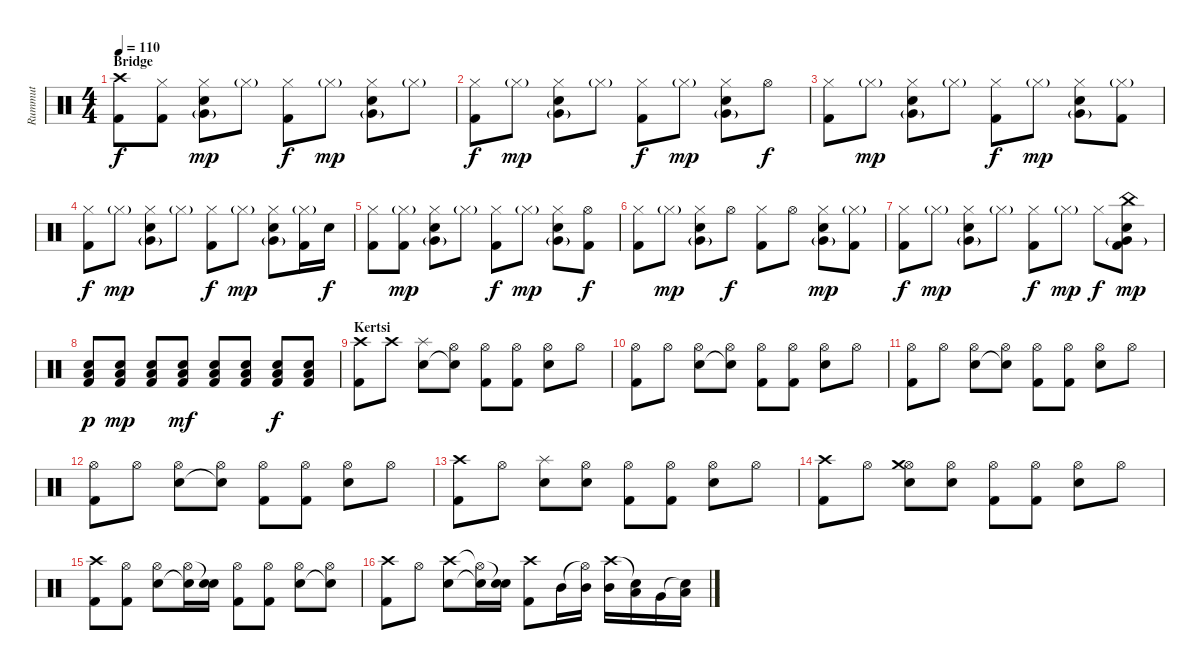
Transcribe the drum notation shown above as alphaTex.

\track ("Rummut" "Rummut") {instrument percussion}
\staff {score}
\articulation defaults
\ts (4 4)
\section ("" "Bridge")
\tempo 110
\clef neutral
\ks c
("Crash high (hit)" "Kick (hit) 2").8{dy f} ("Hi-Hat (closed)" "Kick (hit) 2").8 ("Hi-Hat (closed)" "Very Low Tom (hit)"{g} "Snare (hit) 2").8{dy mp} "Hi-Hat (closed)"{g}.8 ("Hi-Hat (closed)" "Kick (hit) 2").8{dy f} "Hi-Hat (closed)"{g}.8{dy mp} ("Hi-Hat (closed)" "Very Low Tom (hit)"{g} "Snare (hit) 2").8 "Hi-Hat (closed)"{g}.8 |
("Hi-Hat (closed)" "Kick (hit) 2").8{dy f} "Hi-Hat (closed)"{g}.8{dy mp} ("Hi-Hat (closed)" "Very Low Tom (hit)"{g} "Snare (hit) 2").8 "Hi-Hat (closed)"{g}.8 ("Hi-Hat (closed)" "Kick (hit) 2").8{dy f} "Hi-Hat (closed)"{g}.8{dy mp} ("Hi-Hat (closed)" "Very Low Tom (hit)"{g} "Snare (hit) 2").8 "Hi-Hat (open)".8{dy f} |
("Hi-Hat (closed)" "Kick (hit) 2").8 "Hi-Hat (closed)"{g}.8{dy mp} ("Hi-Hat (closed)" "Very Low Tom (hit)"{g} "Snare (hit) 2").8 "Hi-Hat (closed)"{g}.8 ("Hi-Hat (closed)" "Kick (hit) 2").8{dy f} "Hi-Hat (closed)"{g}.8{dy mp} ("Hi-Hat (closed)" "Very Low Tom (hit)"{g} "Snare (hit) 2").8 ("Hi-Hat (closed)"{g} "Kick (hit) 2").8 |
("Hi-Hat (closed)" "Kick (hit) 2").8{dy f} "Hi-Hat (closed)"{g}.8{dy mp} ("Hi-Hat (closed)" "Very Low Tom (hit)"{g} "Snare (hit) 2").8 "Hi-Hat (closed)"{g}.8 ("Hi-Hat (closed)" "Kick (hit) 2").8{dy f} "Hi-Hat (closed)"{g}.8{dy mp} ("Hi-Hat (closed)" "Very Low Tom (hit)"{g} "Snare (hit) 2").8 ("Hi-Hat (closed)"{g} "Kick (hit) 2").16 "Snare (hit) 2".16{dy f} |
("Hi-Hat (closed)" "Kick (hit) 2").8 ("Hi-Hat (closed)"{g} "Kick (hit) 2").8{dy mp} ("Hi-Hat (closed)" "Very Low Tom (hit)"{g} "Snare (hit) 2").8 "Hi-Hat (closed)"{g}.8 ("Hi-Hat (closed)" "Kick (hit) 2").8{dy f} "Hi-Hat (closed)"{g}.8{dy mp} ("Hi-Hat (closed)" "Very Low Tom (hit)"{g} "Snare (hit) 2").8 ("Hi-Hat (open)" "Kick (hit) 2").8{dy f} |
("Hi-Hat (closed)" "Kick (hit) 2").8 "Hi-Hat (closed)"{g}.8{dy mp} ("Hi-Hat (closed)" "Very Low Tom (hit)"{g} "Snare (hit) 2").8 "Hi-Hat (open)".8{dy f} ("Hi-Hat (closed)" "Kick (hit) 2").8 "Hi-Hat (open)".8 ("Hi-Hat (closed)" "Very Low Tom (hit)"{g} "Snare (hit) 2").8{dy mp} ("Hi-Hat (closed)"{g} "Kick (hit) 2").8 |
("Hi-Hat (closed)" "Kick (hit) 2").8{dy f} "Hi-Hat (closed)"{g}.8{dy mp} ("Hi-Hat (closed)" "Very Low Tom (hit)"{g} "Snare (hit) 2").8 "Hi-Hat (closed)"{g}.8 ("Hi-Hat (closed)" "Kick (hit) 2").8{dy f} "Hi-Hat (closed)"{g}.8{dy mp} "Hi-Hat (closed)".8{dy f} ("China (hit)" "Very Low Tom (hit)"{g} "Snare (hit) 2" "Kick (hit) 2").8{dy mp} |
("Snare (hit) 2" "Low Tom (hit)" "Kick (hit) 2").8{dy p} ("Snare (hit) 2" "Low Tom (hit)" "Kick (hit) 2").8{dy mp} ("Snare (hit) 2" "Low Tom (hit)" "Kick (hit) 2").8 ("Snare (hit) 2" "Low Tom (hit)" "Kick (hit) 2").8{dy mf} ("Snare (hit) 2" "Low Tom (hit)" "Kick (hit) 2").8 ("Snare (hit) 2" "Low Tom (hit)" "Kick (hit) 2").8 ("Snare (hit) 2" "Low Tom (hit)" "Kick (hit) 2").8{dy f} ("Snare (hit) 2" "Low Tom (hit)" "Kick (hit) 2").8 |
\section ("" "Kertsi")
("Crash high (hit)" "Kick (hit) 2").8 "Crash high (hit)".8 ("Splash (hit)" "Snare (hit) 2").8 ("Hi-Hat (open)" "Snare (hit)"{t}).8 ("Hi-Hat (open)" "Kick (hit) 2").8 ("Hi-Hat (open)" "Kick (hit) 2").8 ("Hi-Hat (open)" "Snare (hit) 2").8 "Hi-Hat (open)".8 |
("Hi-Hat (open)" "Kick (hit) 2").8 "Hi-Hat (open)".8 ("Hi-Hat (open)" "Snare (hit) 2").8 ("Hi-Hat (open)" "Snare (hit)"{t}).8 ("Hi-Hat (open)" "Kick (hit) 2").8 ("Hi-Hat (open)" "Kick (hit) 2").8 ("Hi-Hat (open)" "Snare (hit) 2").8 "Hi-Hat (open)".8 |
("Hi-Hat (open)" "Kick (hit) 2").8 "Hi-Hat (open)".8 ("Hi-Hat (open)" "Snare (hit) 2").8 ("Hi-Hat (open)" "Snare (hit)"{t}).8 ("Hi-Hat (open)" "Kick (hit) 2").8 ("Hi-Hat (open)" "Kick (hit) 2").8 ("Hi-Hat (open)" "Snare (hit) 2").8 "Hi-Hat (open)".8 |
("Hi-Hat (open)" "Kick (hit) 2").8 "Hi-Hat (open)".8 ("Hi-Hat (open)" "Snare (hit) 2").8 ("Hi-Hat (open)" "Snare (hit)"{t}).8 ("Hi-Hat (open)" "Kick (hit) 2").8 ("Hi-Hat (open)" "Kick (hit) 2").8 ("Hi-Hat (open)" "Snare (hit) 2").8 "Hi-Hat (open)".8 |
("Crash high (hit)" "Kick (hit) 2").8 "Hi-Hat (open)".8 ("Splash (hit)" "Snare (hit) 2").8 ("Hi-Hat (open)" "Snare (hit) 2").8 ("Hi-Hat (open)" "Kick (hit) 2").8 ("Hi-Hat (open)" "Kick (hit) 2").8 ("Hi-Hat (open)" "Snare (hit) 2").8 "Hi-Hat (open)".8 |
("Crash high (hit)" "Kick (hit) 2").8 "Hi-Hat (open)".8 ("Hi-Hat (open)" "Crash medium (hit)" "Snare (hit) 2").8 ("Hi-Hat (open)" "Snare (hit) 2").8 ("Hi-Hat (open)" "Kick (hit) 2").8 ("Hi-Hat (open)" "Kick (hit) 2").8 ("Hi-Hat (open)" "Snare (hit) 2").8 "Hi-Hat (open)".8 |
("Crash high (hit)" "Kick (hit) 2").8 ("Hi-Hat (open)" "Kick (hit) 2").8 ("Hi-Hat (open)" "Snare (hit) 2").8 ("Hi-Hat (open)" "Snare (hit) 2"{t}).16 ("Snare (hit)"{t} "Snare (hit) 2").16 ("Hi-Hat (open)" "Kick (hit) 2").8 ("Hi-Hat (open)" "Kick (hit) 2").8 ("Hi-Hat (open)" "Snare (hit) 2").8 ("Hi-Hat (open)" "Snare (hit)"{t}).8 |
("Crash high (hit)" "Kick (hit) 2").8 "Hi-Hat (open)".8 ("Crash high (hit)" "Snare (hit) 2").8 ("Hi-Hat (open)"{t} "Snare (hit) 2"{t}).16 ("Snare (hit)"{t} "Snare (hit) 2").16 ("Crash high (hit)" "Kick (hit) 2").8 "Mid Tom (hit)".16 ("Hi-Hat (open)"{t} "Mid Tom (hit)").16 ("Crash high (hit)" "Mid Tom (hit)").16 ("Snare (hit)"{t} "Low Tom (hit)").16 "Very Low Tom (hit)".16 ("Snare (hit)"{t} "Low Floor Tom (hit)").16
